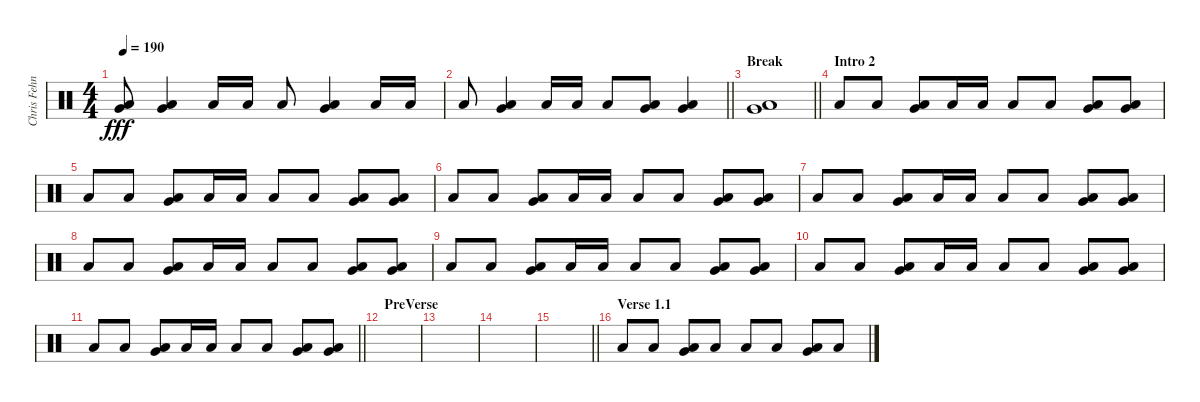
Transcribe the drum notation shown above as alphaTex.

\track ("Chris Fehn" "Chris Fehn") {instrument percussion}
\staff {score}
\articulation defaults
\ts (4 4)
\tempo 190
\clef neutral
\ks c
("Very Low Tom (hit)" "Low Floor Tom (hit)").8{dy fff} ("Very Low Tom (hit)" "Low Floor Tom (hit)").4 "Low Floor Tom (hit)".16 "Low Floor Tom (hit)".16 "Low Floor Tom (hit)".8 ("Very Low Tom (hit)" "Low Floor Tom (hit)").4 "Low Floor Tom (hit)".16 "Low Floor Tom (hit)".16 |
\barLineRight lightlight "Low Floor Tom (hit)".8
("Very Low Tom (hit)" "Low Floor Tom (hit)").4 "Low Floor Tom (hit)".16 "Low Floor Tom (hit)".16 "Low Floor Tom (hit)".8 ("Very Low Tom (hit)" "Low Floor Tom (hit)").8 ("Very Low Tom (hit)" "Low Floor Tom (hit)").4 |
\section ("" "Break")
\barLineRight lightlight
("Very Low Tom (hit)" "Low Floor Tom (hit)").1 |
\section ("" "Intro 2")
"Low Floor Tom (hit)".8 "Low Floor Tom (hit)".8 ("Very Low Tom (hit)" "Low Floor Tom (hit)").8 "Low Floor Tom (hit)".16 "Low Floor Tom (hit)".16 "Low Floor Tom (hit)".8 "Low Floor Tom (hit)".8 ("Very Low Tom (hit)" "Low Floor Tom (hit)").8 ("Very Low Tom (hit)" "Low Floor Tom (hit)").8 |
"Low Floor Tom (hit)".8 "Low Floor Tom (hit)".8 ("Very Low Tom (hit)" "Low Floor Tom (hit)").8 "Low Floor Tom (hit)".16 "Low Floor Tom (hit)".16 "Low Floor Tom (hit)".8 "Low Floor Tom (hit)".8 ("Very Low Tom (hit)" "Low Floor Tom (hit)").8 ("Very Low Tom (hit)" "Low Floor Tom (hit)").8 |
"Low Floor Tom (hit)".8 "Low Floor Tom (hit)".8 ("Very Low Tom (hit)" "Low Floor Tom (hit)").8 "Low Floor Tom (hit)".16 "Low Floor Tom (hit)".16 "Low Floor Tom (hit)".8 "Low Floor Tom (hit)".8 ("Very Low Tom (hit)" "Low Floor Tom (hit)").8 ("Very Low Tom (hit)" "Low Floor Tom (hit)").8 |
"Low Floor Tom (hit)".8 "Low Floor Tom (hit)".8 ("Very Low Tom (hit)" "Low Floor Tom (hit)").8 "Low Floor Tom (hit)".16 "Low Floor Tom (hit)".16 "Low Floor Tom (hit)".8 "Low Floor Tom (hit)".8 ("Very Low Tom (hit)" "Low Floor Tom (hit)").8 ("Very Low Tom (hit)" "Low Floor Tom (hit)").8 |
"Low Floor Tom (hit)".8 "Low Floor Tom (hit)".8 ("Very Low Tom (hit)" "Low Floor Tom (hit)").8 "Low Floor Tom (hit)".16 "Low Floor Tom (hit)".16 "Low Floor Tom (hit)".8 "Low Floor Tom (hit)".8 ("Very Low Tom (hit)" "Low Floor Tom (hit)").8 ("Very Low Tom (hit)" "Low Floor Tom (hit)").8 |
"Low Floor Tom (hit)".8 "Low Floor Tom (hit)".8 ("Very Low Tom (hit)" "Low Floor Tom (hit)").8 "Low Floor Tom (hit)".16 "Low Floor Tom (hit)".16 "Low Floor Tom (hit)".8 "Low Floor Tom (hit)".8 ("Very Low Tom (hit)" "Low Floor Tom (hit)").8 ("Very Low Tom (hit)" "Low Floor Tom (hit)").8 |
"Low Floor Tom (hit)".8 "Low Floor Tom (hit)".8 ("Very Low Tom (hit)" "Low Floor Tom (hit)").8 "Low Floor Tom (hit)".16 "Low Floor Tom (hit)".16 "Low Floor Tom (hit)".8 "Low Floor Tom (hit)".8 ("Very Low Tom (hit)" "Low Floor Tom (hit)").8 ("Very Low Tom (hit)" "Low Floor Tom (hit)").8 |
\barLineRight lightlight "Low Floor Tom (hit)".8 "Low Floor Tom (hit)".8
("Very Low Tom (hit)" "Low Floor Tom (hit)").8 "Low Floor Tom (hit)".16 "Low Floor Tom (hit)".16 "Low Floor Tom (hit)".8 "Low Floor Tom (hit)".8 ("Very Low Tom (hit)" "Low Floor Tom (hit)").8 ("Very Low Tom (hit)" "Low Floor Tom (hit)").8 |
\section ("" "PreVerse")
|
|
|
\barLineRight lightlight
|
\section ("" "Verse 1.1")
"Low Floor Tom (hit)".8 "Low Floor Tom (hit)".8 ("Very Low Tom (hit)" "Low Floor Tom (hit)").8 "Low Floor Tom (hit)".8 "Low Floor Tom (hit)".8 "Low Floor Tom (hit)".8 ("Very Low Tom (hit)" "Low Floor Tom (hit)").8 "Low Floor Tom (hit)".8
